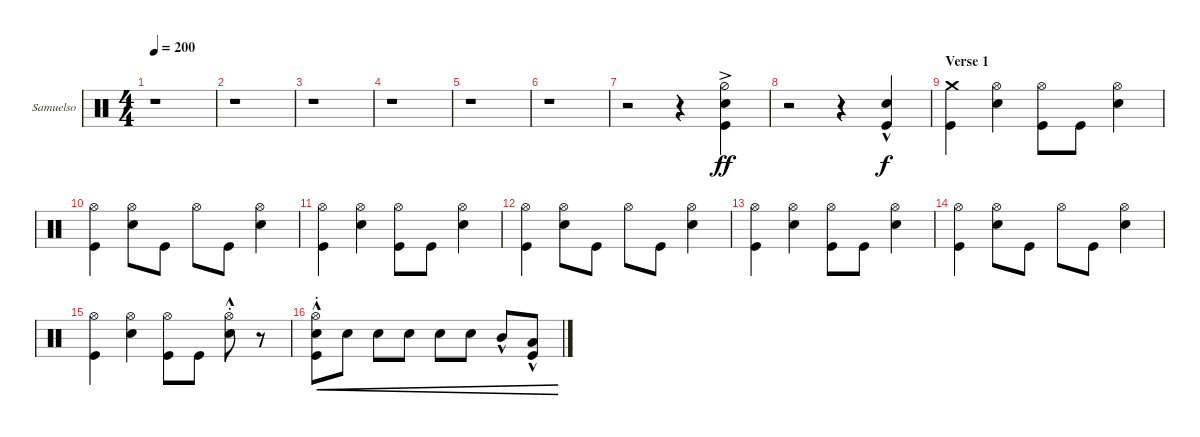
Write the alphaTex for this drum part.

\bracketExtendMode groupsimilarinstruments
\firstSystemTrackNameOrientation horizontal
\otherSystemsTrackNameOrientation horizontal
\track ("Gar Samuelson" "Samuelso") {instrument percussion}
\staff {score}
\articulation defaults
\ts (4 4)
\tempo 200
\clef neutral
\ks c
r.1{dy ff} |
r.1 |
r.1 |
r.1 |
r.1 |
r.1 |
r.2 r.4 ("Snare (hit) 2" "Kick (hit)" "Hi-Hat (half)"{ac}).4 |
r.2 r.4 ("Snare (hit) 2"{hac} "Kick (hit)").4{dy f} |
\section ("" "Verse 1")
("Crash medium (hit)" "Kick (hit)").4 ("Hi-Hat (open)" "Snare (hit) 2").4 ("Hi-Hat (open)" "Kick (hit)").8 "Kick (hit)".8 ("Hi-Hat (open)" "Snare (hit) 2").4 |
("Hi-Hat (open)" "Kick (hit)").4 ("Hi-Hat (open)" "Snare (hit) 2").8 "Kick (hit)".8 "Hi-Hat (open)".8 "Kick (hit)".8 ("Hi-Hat (open)" "Snare (hit) 2").4 |
("Kick (hit)" "Hi-Hat (open)").4 ("Hi-Hat (open)" "Snare (hit) 2").4 ("Hi-Hat (open)" "Kick (hit)").8 "Kick (hit)".8 ("Hi-Hat (open)" "Snare (hit) 2").4 |
("Hi-Hat (open)" "Kick (hit)").4 ("Hi-Hat (open)" "Snare (hit) 2").8 "Kick (hit)".8 "Hi-Hat (open)".8 "Kick (hit)".8 ("Hi-Hat (open)" "Snare (hit) 2").4 |
("Kick (hit)" "Hi-Hat (open)").4 ("Hi-Hat (open)" "Snare (hit) 2").4 ("Hi-Hat (open)" "Kick (hit)").8 "Kick (hit)".8 ("Hi-Hat (open)" "Snare (hit) 2").4 |
("Hi-Hat (open)" "Kick (hit)").4 ("Hi-Hat (open)" "Snare (hit) 2").8 "Kick (hit)".8 "Hi-Hat (open)".8 "Kick (hit)".8 ("Hi-Hat (open)" "Snare (hit) 2").4 |
("Kick (hit)" "Hi-Hat (open)").4 ("Hi-Hat (open)" "Snare (hit) 2").4 ("Hi-Hat (open)" "Kick (hit)").8 "Kick (hit)".8 ("Hi-Hat (open)"{st} "Snare (hit) 2"{hac st}).8 r.8 |
("Snare (hit) 2"{hac} "Hi-Hat (open)"{st} "Kick (hit)").8{cre} "Snare (hit) 2".8{cre} "Snare (hit) 2".8{cre} "Snare (hit) 2".8{cre} "Snare (hit) 2".8{cre} "Snare (hit) 2".8{cre} "Mid Tom (hit)"{hac}.8{cre} ("Low Tom (hit)"{hac} "Kick (hit)").8{cre}
